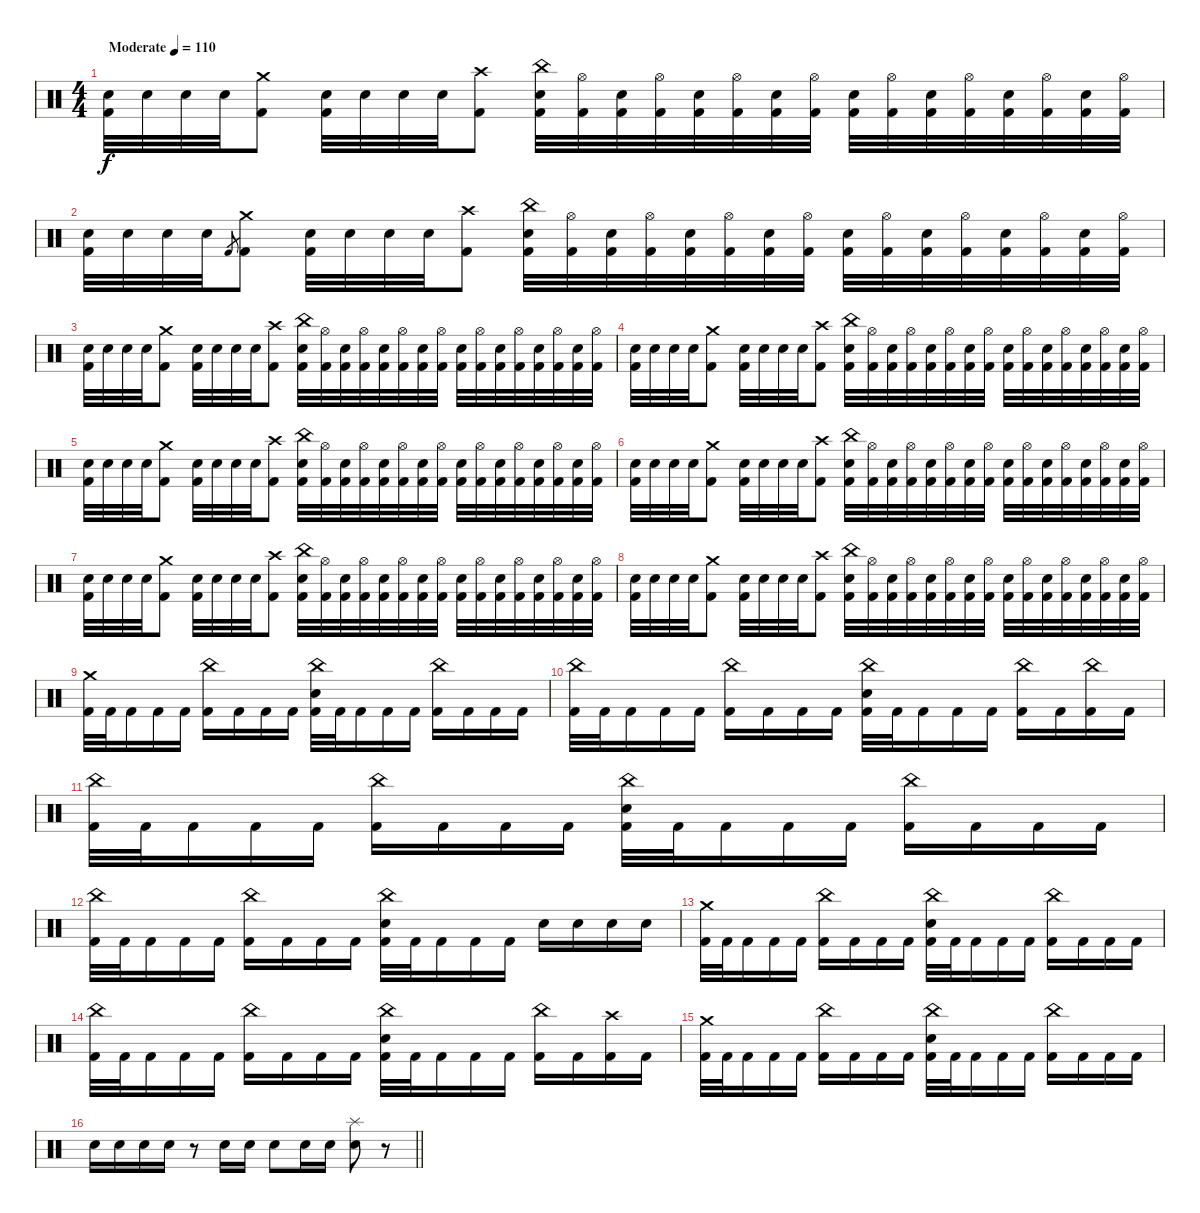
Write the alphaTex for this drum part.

\track "" {instrument percussion}
\staff {score}
\articulation defaults
\ts (4 4)
\tempo (110 "Moderate")
\clef neutral
\ks c
("Electric Snare (hit)" "Kick (hit) 2").32{dy f} "Electric Snare (hit)".32 "Electric Snare (hit)".32 "Electric Snare (hit)".32 ("Crash medium (hit)" "Kick (hit) 2").8 ("Electric Snare (hit)" "Kick (hit) 2").32 "Electric Snare (hit)".32 "Electric Snare (hit)".32 "Electric Snare (hit)".32 ("Crash high (hit)" "Kick (hit) 2").8 ("China (hit)" "Electric Snare (hit)" "Kick (hit) 2").32 ("Hi-Hat (open)" "Kick (hit) 2").32 ("Electric Snare (hit)" "Kick (hit) 2").32 ("Hi-Hat (open)" "Kick (hit) 2").32 ("Electric Snare (hit)" "Kick (hit) 2").32 ("Hi-Hat (open)" "Kick (hit) 2").32 ("Electric Snare (hit)" "Kick (hit) 2").32 ("Hi-Hat (open)" "Kick (hit) 2").32 ("Electric Snare (hit)" "Kick (hit) 2").32 ("Hi-Hat (open)" "Kick (hit) 2").32 ("Electric Snare (hit)" "Kick (hit) 2").32 ("Hi-Hat (open)" "Kick (hit) 2").32 ("Electric Snare (hit)" "Kick (hit) 2").32 ("Hi-Hat (open)" "Kick (hit) 2").32 ("Electric Snare (hit)" "Kick (hit) 2").32 ("Hi-Hat (open)" "Kick (hit) 2").32 |
("Electric Snare (hit)" "Kick (hit) 2").32 "Electric Snare (hit)".32 "Electric Snare (hit)".32 "Electric Snare (hit)".32 "Kick (hit) 2".8{gr} ("Crash medium (hit)" "Kick (hit) 2").8 ("Electric Snare (hit)" "Kick (hit) 2").32 "Electric Snare (hit)".32 "Electric Snare (hit)".32 "Electric Snare (hit)".32 ("Crash high (hit)" "Kick (hit) 2").8 ("China (hit)" "Electric Snare (hit)" "Kick (hit) 2").32 ("Hi-Hat (open)" "Kick (hit) 2").32 ("Electric Snare (hit)" "Kick (hit) 2").32 ("Hi-Hat (open)" "Kick (hit) 2").32 ("Electric Snare (hit)" "Kick (hit) 2").32 ("Hi-Hat (open)" "Kick (hit) 2").32 ("Electric Snare (hit)" "Kick (hit) 2").32 ("Hi-Hat (open)" "Kick (hit) 2").32 ("Electric Snare (hit)" "Kick (hit) 2").32 ("Hi-Hat (open)" "Kick (hit) 2").32 ("Electric Snare (hit)" "Kick (hit) 2").32 ("Hi-Hat (open)" "Kick (hit) 2").32 ("Electric Snare (hit)" "Kick (hit) 2").32 ("Hi-Hat (open)" "Kick (hit) 2").32 ("Electric Snare (hit)" "Kick (hit) 2").32 ("Hi-Hat (open)" "Kick (hit) 2").32 |
("Electric Snare (hit)" "Kick (hit) 2").32 "Electric Snare (hit)".32 "Electric Snare (hit)".32 "Electric Snare (hit)".32 ("Crash medium (hit)" "Kick (hit) 2").8 ("Electric Snare (hit)" "Kick (hit) 2").32 "Electric Snare (hit)".32 "Electric Snare (hit)".32 "Electric Snare (hit)".32 ("Crash high (hit)" "Kick (hit) 2").8 ("China (hit)" "Electric Snare (hit)" "Kick (hit) 2").32 ("Hi-Hat (open)" "Kick (hit) 2").32 ("Electric Snare (hit)" "Kick (hit) 2").32 ("Hi-Hat (open)" "Kick (hit) 2").32 ("Electric Snare (hit)" "Kick (hit) 2").32 ("Hi-Hat (open)" "Kick (hit) 2").32 ("Electric Snare (hit)" "Kick (hit) 2").32 ("Hi-Hat (open)" "Kick (hit) 2").32 ("Electric Snare (hit)" "Kick (hit) 2").32 ("Hi-Hat (open)" "Kick (hit) 2").32 ("Electric Snare (hit)" "Kick (hit) 2").32 ("Hi-Hat (open)" "Kick (hit) 2").32 ("Electric Snare (hit)" "Kick (hit) 2").32 ("Hi-Hat (open)" "Kick (hit) 2").32 ("Electric Snare (hit)" "Kick (hit) 2").32 ("Hi-Hat (open)" "Kick (hit) 2").32 |
("Electric Snare (hit)" "Kick (hit) 2").32 "Electric Snare (hit)".32 "Electric Snare (hit)".32 "Electric Snare (hit)".32 ("Crash medium (hit)" "Kick (hit) 2").8 ("Electric Snare (hit)" "Kick (hit) 2").32 "Electric Snare (hit)".32 "Electric Snare (hit)".32 "Electric Snare (hit)".32 ("Crash high (hit)" "Kick (hit) 2").8 ("China (hit)" "Electric Snare (hit)" "Kick (hit) 2").32 ("Hi-Hat (open)" "Kick (hit) 2").32 ("Electric Snare (hit)" "Kick (hit) 2").32 ("Hi-Hat (open)" "Kick (hit) 2").32 ("Electric Snare (hit)" "Kick (hit) 2").32 ("Hi-Hat (open)" "Kick (hit) 2").32 ("Electric Snare (hit)" "Kick (hit) 2").32 ("Hi-Hat (open)" "Kick (hit) 2").32 ("Electric Snare (hit)" "Kick (hit) 2").32 ("Hi-Hat (open)" "Kick (hit) 2").32 ("Electric Snare (hit)" "Kick (hit) 2").32 ("Hi-Hat (open)" "Kick (hit) 2").32 ("Electric Snare (hit)" "Kick (hit) 2").32 ("Hi-Hat (open)" "Kick (hit) 2").32 ("Electric Snare (hit)" "Kick (hit) 2").32 ("Hi-Hat (open)" "Kick (hit) 2").32 |
("Electric Snare (hit)" "Kick (hit) 2").32 "Electric Snare (hit)".32 "Electric Snare (hit)".32 "Electric Snare (hit)".32 ("Crash medium (hit)" "Kick (hit) 2").8 ("Electric Snare (hit)" "Kick (hit) 2").32 "Electric Snare (hit)".32 "Electric Snare (hit)".32 "Electric Snare (hit)".32 ("Crash high (hit)" "Kick (hit) 2").8 ("China (hit)" "Electric Snare (hit)" "Kick (hit) 2").32 ("Hi-Hat (open)" "Kick (hit) 2").32 ("Electric Snare (hit)" "Kick (hit) 2").32 ("Hi-Hat (open)" "Kick (hit) 2").32 ("Electric Snare (hit)" "Kick (hit) 2").32 ("Hi-Hat (open)" "Kick (hit) 2").32 ("Electric Snare (hit)" "Kick (hit) 2").32 ("Hi-Hat (open)" "Kick (hit) 2").32 ("Electric Snare (hit)" "Kick (hit) 2").32 ("Hi-Hat (open)" "Kick (hit) 2").32 ("Electric Snare (hit)" "Kick (hit) 2").32 ("Hi-Hat (open)" "Kick (hit) 2").32 ("Electric Snare (hit)" "Kick (hit) 2").32 ("Hi-Hat (open)" "Kick (hit) 2").32 ("Electric Snare (hit)" "Kick (hit) 2").32 ("Hi-Hat (open)" "Kick (hit) 2").32 |
("Electric Snare (hit)" "Kick (hit) 2").32 "Electric Snare (hit)".32 "Electric Snare (hit)".32 "Electric Snare (hit)".32 ("Crash medium (hit)" "Kick (hit) 2").8 ("Electric Snare (hit)" "Kick (hit) 2").32 "Electric Snare (hit)".32 "Electric Snare (hit)".32 "Electric Snare (hit)".32 ("Crash high (hit)" "Kick (hit) 2").8 ("China (hit)" "Electric Snare (hit)" "Kick (hit) 2").32 ("Hi-Hat (open)" "Kick (hit) 2").32 ("Electric Snare (hit)" "Kick (hit) 2").32 ("Hi-Hat (open)" "Kick (hit) 2").32 ("Electric Snare (hit)" "Kick (hit) 2").32 ("Hi-Hat (open)" "Kick (hit) 2").32 ("Electric Snare (hit)" "Kick (hit) 2").32 ("Hi-Hat (open)" "Kick (hit) 2").32 ("Electric Snare (hit)" "Kick (hit) 2").32 ("Hi-Hat (open)" "Kick (hit) 2").32 ("Electric Snare (hit)" "Kick (hit) 2").32 ("Hi-Hat (open)" "Kick (hit) 2").32 ("Electric Snare (hit)" "Kick (hit) 2").32 ("Hi-Hat (open)" "Kick (hit) 2").32 ("Electric Snare (hit)" "Kick (hit) 2").32 ("Hi-Hat (open)" "Kick (hit) 2").32 |
("Electric Snare (hit)" "Kick (hit) 2").32 "Electric Snare (hit)".32 "Electric Snare (hit)".32 "Electric Snare (hit)".32 ("Crash medium (hit)" "Kick (hit) 2").8 ("Electric Snare (hit)" "Kick (hit) 2").32 "Electric Snare (hit)".32 "Electric Snare (hit)".32 "Electric Snare (hit)".32 ("Crash high (hit)" "Kick (hit) 2").8 ("China (hit)" "Electric Snare (hit)" "Kick (hit) 2").32 ("Hi-Hat (open)" "Kick (hit) 2").32 ("Electric Snare (hit)" "Kick (hit) 2").32 ("Hi-Hat (open)" "Kick (hit) 2").32 ("Electric Snare (hit)" "Kick (hit) 2").32 ("Hi-Hat (open)" "Kick (hit) 2").32 ("Electric Snare (hit)" "Kick (hit) 2").32 ("Hi-Hat (open)" "Kick (hit) 2").32 ("Electric Snare (hit)" "Kick (hit) 2").32 ("Hi-Hat (open)" "Kick (hit) 2").32 ("Electric Snare (hit)" "Kick (hit) 2").32 ("Hi-Hat (open)" "Kick (hit) 2").32 ("Electric Snare (hit)" "Kick (hit) 2").32 ("Hi-Hat (open)" "Kick (hit) 2").32 ("Electric Snare (hit)" "Kick (hit) 2").32 ("Hi-Hat (open)" "Kick (hit) 2").32 |
("Electric Snare (hit)" "Kick (hit) 2").32 "Electric Snare (hit)".32 "Electric Snare (hit)".32 "Electric Snare (hit)".32 ("Crash medium (hit)" "Kick (hit) 2").8 ("Electric Snare (hit)" "Kick (hit) 2").32 "Electric Snare (hit)".32 "Electric Snare (hit)".32 "Electric Snare (hit)".32 ("Crash high (hit)" "Kick (hit) 2").8 ("China (hit)" "Electric Snare (hit)" "Kick (hit) 2").32 ("Hi-Hat (open)" "Kick (hit) 2").32 ("Electric Snare (hit)" "Kick (hit) 2").32 ("Hi-Hat (open)" "Kick (hit) 2").32 ("Electric Snare (hit)" "Kick (hit) 2").32 ("Hi-Hat (open)" "Kick (hit) 2").32 ("Electric Snare (hit)" "Kick (hit) 2").32 ("Hi-Hat (open)" "Kick (hit) 2").32 ("Electric Snare (hit)" "Kick (hit) 2").32 ("Hi-Hat (open)" "Kick (hit) 2").32 ("Electric Snare (hit)" "Kick (hit) 2").32 ("Hi-Hat (open)" "Kick (hit) 2").32 ("Electric Snare (hit)" "Kick (hit) 2").32 ("Hi-Hat (open)" "Kick (hit) 2").32 ("Electric Snare (hit)" "Kick (hit) 2").32 ("Hi-Hat (open)" "Kick (hit) 2").32 |
("Crash medium (hit)" "Kick (hit) 2").32 "Kick (hit) 2".32 "Kick (hit) 2".16 "Kick (hit) 2".16 "Kick (hit) 2".16 ("China (hit)" "Kick (hit) 2").16 "Kick (hit) 2".16 "Kick (hit) 2".16 "Kick (hit) 2".16 ("China (hit)" "Electric Snare (hit)" "Kick (hit) 2").32 "Kick (hit) 2".32 "Kick (hit) 2".16 "Kick (hit) 2".16 "Kick (hit) 2".16 ("China (hit)" "Kick (hit) 2").16 "Kick (hit) 2".16 "Kick (hit) 2".16 "Kick (hit) 2".16 |
("China (hit)" "Kick (hit) 2").32 "Kick (hit) 2".32 "Kick (hit) 2".16 "Kick (hit) 2".16 "Kick (hit) 2".16 ("China (hit)" "Kick (hit) 2").16 "Kick (hit) 2".16 "Kick (hit) 2".16 "Kick (hit) 2".16 ("China (hit)" "Electric Snare (hit)" "Kick (hit) 2").32 "Kick (hit) 2".32 "Kick (hit) 2".16 "Kick (hit) 2".16 "Kick (hit) 2".16 ("China (hit)" "Kick (hit) 2").16 "Kick (hit) 2".16 ("China (hit)" "Kick (hit) 2").16 "Kick (hit) 2".16 |
("China (hit)" "Kick (hit) 2").32 "Kick (hit) 2".32 "Kick (hit) 2".16 "Kick (hit) 2".16 "Kick (hit) 2".16 ("China (hit)" "Kick (hit) 2").16 "Kick (hit) 2".16 "Kick (hit) 2".16 "Kick (hit) 2".16 ("China (hit)" "Electric Snare (hit)" "Kick (hit) 2").32 "Kick (hit) 2".32 "Kick (hit) 2".16 "Kick (hit) 2".16 "Kick (hit) 2".16 ("China (hit)" "Kick (hit) 2").16 "Kick (hit) 2".16 "Kick (hit) 2".16 "Kick (hit) 2".16 |
("China (hit)" "Kick (hit) 2").32 "Kick (hit) 2".32 "Kick (hit) 2".16 "Kick (hit) 2".16 "Kick (hit) 2".16 ("China (hit)" "Kick (hit) 2").16 "Kick (hit) 2".16 "Kick (hit) 2".16 "Kick (hit) 2".16 ("China (hit)" "Electric Snare (hit)" "Kick (hit) 2").32 "Kick (hit) 2".32 "Kick (hit) 2".16 "Kick (hit) 2".16 "Kick (hit) 2".16 "Electric Snare (hit)".16 "Electric Snare (hit)".16 "Electric Snare (hit)".16 "Electric Snare (hit)".16 |
("Crash medium (hit)" "Kick (hit) 2").32 "Kick (hit) 2".32 "Kick (hit) 2".16 "Kick (hit) 2".16 "Kick (hit) 2".16 ("China (hit)" "Kick (hit) 2").16 "Kick (hit) 2".16 "Kick (hit) 2".16 "Kick (hit) 2".16 ("China (hit)" "Electric Snare (hit)" "Kick (hit) 2").32 "Kick (hit) 2".32 "Kick (hit) 2".16 "Kick (hit) 2".16 "Kick (hit) 2".16 ("China (hit)" "Kick (hit) 2").16 "Kick (hit) 2".16 "Kick (hit) 2".16 "Kick (hit) 2".16 |
("China (hit)" "Kick (hit) 2").32 "Kick (hit) 2".32 "Kick (hit) 2".16 "Kick (hit) 2".16 "Kick (hit) 2".16 ("China (hit)" "Kick (hit) 2").16 "Kick (hit) 2".16 "Kick (hit) 2".16 "Kick (hit) 2".16 ("China (hit)" "Electric Snare (hit)" "Kick (hit) 2").32 "Kick (hit) 2".32 "Kick (hit) 2".16 "Kick (hit) 2".16 "Kick (hit) 2".16 ("China (hit)" "Kick (hit) 2").16 "Kick (hit) 2".16 ("Crash high (hit)" "Kick (hit) 2").16 "Kick (hit) 2".16 |
("Crash medium (hit)" "Kick (hit) 2").32 "Kick (hit) 2".32 "Kick (hit) 2".16 "Kick (hit) 2".16 "Kick (hit) 2".16 ("China (hit)" "Kick (hit) 2").16 "Kick (hit) 2".16 "Kick (hit) 2".16 "Kick (hit) 2".16 ("China (hit)" "Electric Snare (hit)" "Kick (hit) 2").32 "Kick (hit) 2".32 "Kick (hit) 2".16 "Kick (hit) 2".16 "Kick (hit) 2".16 ("China (hit)" "Kick (hit) 2").16 "Kick (hit) 2".16 "Kick (hit) 2".16 "Kick (hit) 2".16 |
\barLineRight lightlight "Electric Snare (hit)".16 "Electric Snare (hit)".16 "Electric Snare (hit)".16 "Electric Snare (hit)".16
r.8 "Electric Snare (hit)".16 "Electric Snare (hit)".16 "Electric Snare (hit)".8 "Electric Snare (hit)".16 "Electric Snare (hit)".16 ("Splash (hit)" "Electric Snare (hit)").8 r.8
